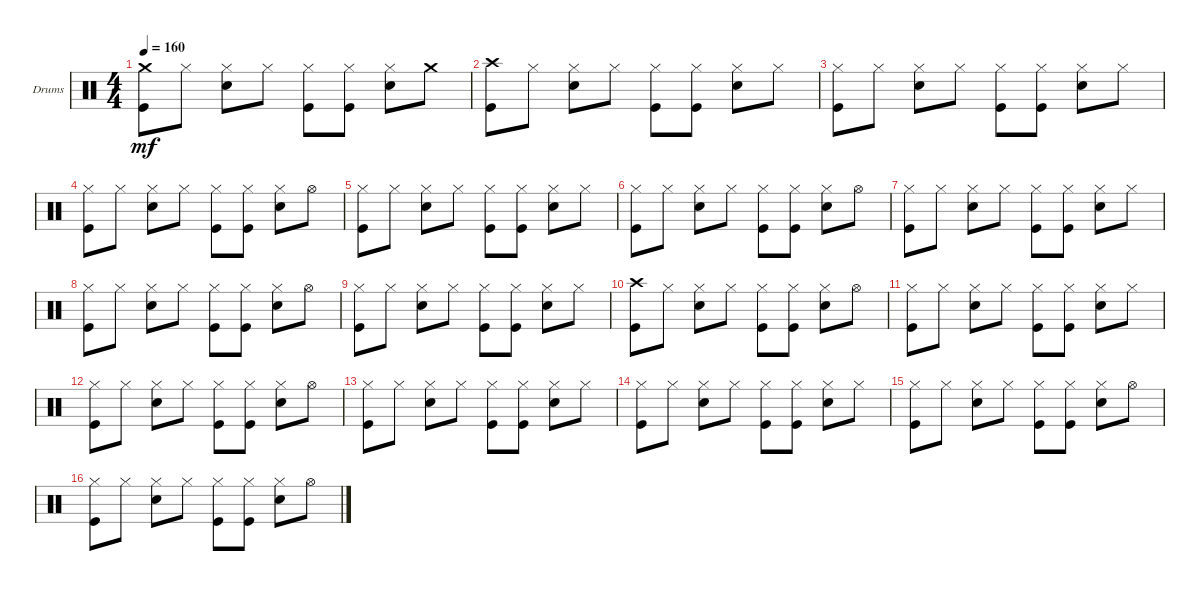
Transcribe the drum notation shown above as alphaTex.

\defaultSystemsLayout 4
\bracketExtendMode groupsimilarinstruments
\firstSystemTrackNameOrientation horizontal
\otherSystemsTrackNameOrientation horizontal
\track ("Drumkit" "Drums") {instrument percussion}
\staff {score}
\articulation defaults
\ts (4 4)
\tempo 160
\clef neutral
\ks c
("Kick (hit)" "Crash medium (hit)").8{dy mf} "Hi-Hat (closed)".8 ("Snare (hit) 2" "Hi-Hat (closed)").8 "Hi-Hat (closed)".8 ("Hi-Hat (closed)" "Kick (hit)").8 ("Kick (hit)" "Hi-Hat (closed)").8 ("Snare (hit) 2" "Hi-Hat (closed)").8 "Crash medium (hit)".8 |
("Kick (hit)" "Crash high (hit)").8 "Hi-Hat (closed)".8 ("Snare (hit) 2" "Hi-Hat (closed)").8 "Hi-Hat (closed)".8 ("Hi-Hat (closed)" "Kick (hit)").8 ("Kick (hit)" "Hi-Hat (closed)").8 ("Snare (hit) 2" "Hi-Hat (closed)").8 "Hi-Hat (closed)".8 |
("Kick (hit)" "Hi-Hat (closed)").8 "Hi-Hat (closed)".8 ("Snare (hit) 2" "Hi-Hat (closed)").8 "Hi-Hat (closed)".8 ("Hi-Hat (closed)" "Kick (hit)").8 ("Kick (hit)" "Hi-Hat (closed)").8 ("Snare (hit) 2" "Hi-Hat (closed)").8 "Hi-Hat (closed)".8 |
("Kick (hit)" "Hi-Hat (closed)").8 "Hi-Hat (closed)".8 ("Snare (hit) 2" "Hi-Hat (closed)").8 "Hi-Hat (closed)".8 ("Hi-Hat (closed)" "Kick (hit)").8 ("Kick (hit)" "Hi-Hat (closed)").8 ("Snare (hit) 2" "Hi-Hat (closed)").8 "Hi-Hat (open)".8 |
("Kick (hit)" "Hi-Hat (closed)").8 "Hi-Hat (closed)".8 ("Snare (hit) 2" "Hi-Hat (closed)").8 "Hi-Hat (closed)".8 ("Hi-Hat (closed)" "Kick (hit)").8 ("Kick (hit)" "Hi-Hat (closed)").8 ("Snare (hit) 2" "Hi-Hat (closed)").8 "Hi-Hat (closed)".8 |
("Kick (hit)" "Hi-Hat (closed)").8 "Hi-Hat (closed)".8 ("Snare (hit) 2" "Hi-Hat (closed)").8 "Hi-Hat (closed)".8 ("Hi-Hat (closed)" "Kick (hit)").8 ("Kick (hit)" "Hi-Hat (closed)").8 ("Snare (hit) 2" "Hi-Hat (closed)").8 "Hi-Hat (open)".8 |
("Kick (hit)" "Hi-Hat (closed)").8 "Hi-Hat (closed)".8 ("Snare (hit) 2" "Hi-Hat (closed)").8 "Hi-Hat (closed)".8 ("Hi-Hat (closed)" "Kick (hit)").8 ("Kick (hit)" "Hi-Hat (closed)").8 ("Snare (hit) 2" "Hi-Hat (closed)").8 "Hi-Hat (closed)".8 |
("Kick (hit)" "Hi-Hat (closed)").8 "Hi-Hat (closed)".8 ("Snare (hit) 2" "Hi-Hat (closed)").8 "Hi-Hat (closed)".8 ("Hi-Hat (closed)" "Kick (hit)").8 ("Kick (hit)" "Hi-Hat (closed)").8 ("Snare (hit) 2" "Hi-Hat (closed)").8 "Hi-Hat (open)".8 |
("Kick (hit)" "Hi-Hat (closed)").8 "Hi-Hat (closed)".8 ("Snare (hit) 2" "Hi-Hat (closed)").8 "Hi-Hat (closed)".8 ("Hi-Hat (closed)" "Kick (hit)").8 ("Kick (hit)" "Hi-Hat (closed)").8 ("Snare (hit) 2" "Hi-Hat (closed)").8 "Hi-Hat (closed)".8 |
("Kick (hit)" "Crash high (hit)").8 "Hi-Hat (closed)".8 ("Snare (hit) 2" "Hi-Hat (closed)").8 "Hi-Hat (closed)".8 ("Hi-Hat (closed)" "Kick (hit)").8 ("Kick (hit)" "Hi-Hat (closed)").8 ("Snare (hit) 2" "Hi-Hat (closed)").8 "Hi-Hat (open)".8 |
("Kick (hit)" "Hi-Hat (closed)").8 "Hi-Hat (closed)".8 ("Snare (hit) 2" "Hi-Hat (closed)").8 "Hi-Hat (closed)".8 ("Hi-Hat (closed)" "Kick (hit)").8 ("Kick (hit)" "Hi-Hat (closed)").8 ("Snare (hit) 2" "Hi-Hat (closed)").8 "Hi-Hat (closed)".8 |
("Kick (hit)" "Hi-Hat (closed)").8 "Hi-Hat (closed)".8 ("Snare (hit) 2" "Hi-Hat (closed)").8 "Hi-Hat (closed)".8 ("Hi-Hat (closed)" "Kick (hit)").8 ("Kick (hit)" "Hi-Hat (closed)").8 ("Snare (hit) 2" "Hi-Hat (closed)").8 "Hi-Hat (open)".8 |
("Kick (hit)" "Hi-Hat (closed)").8 "Hi-Hat (closed)".8 ("Snare (hit) 2" "Hi-Hat (closed)").8 "Hi-Hat (closed)".8 ("Hi-Hat (closed)" "Kick (hit)").8 ("Kick (hit)" "Hi-Hat (closed)").8 ("Snare (hit) 2" "Hi-Hat (closed)").8 "Hi-Hat (closed)".8 |
("Kick (hit)" "Hi-Hat (closed)").8 "Hi-Hat (closed)".8 ("Snare (hit) 2" "Hi-Hat (closed)").8 "Hi-Hat (closed)".8 ("Hi-Hat (closed)" "Kick (hit)").8 ("Kick (hit)" "Hi-Hat (closed)").8 ("Snare (hit) 2" "Hi-Hat (closed)").8 "Hi-Hat (closed)".8 |
("Kick (hit)" "Hi-Hat (closed)").8 "Hi-Hat (closed)".8 ("Snare (hit) 2" "Hi-Hat (closed)").8 "Hi-Hat (closed)".8 ("Hi-Hat (closed)" "Kick (hit)").8 ("Kick (hit)" "Hi-Hat (closed)").8 ("Snare (hit) 2" "Hi-Hat (closed)").8 "Hi-Hat (open)".8 |
("Kick (hit)" "Hi-Hat (closed)").8 "Hi-Hat (closed)".8 ("Snare (hit) 2" "Hi-Hat (closed)").8 "Hi-Hat (closed)".8 ("Hi-Hat (closed)" "Kick (hit)").8 ("Kick (hit)" "Hi-Hat (closed)").8 ("Snare (hit) 2" "Hi-Hat (closed)").8 "Hi-Hat (open)".8
